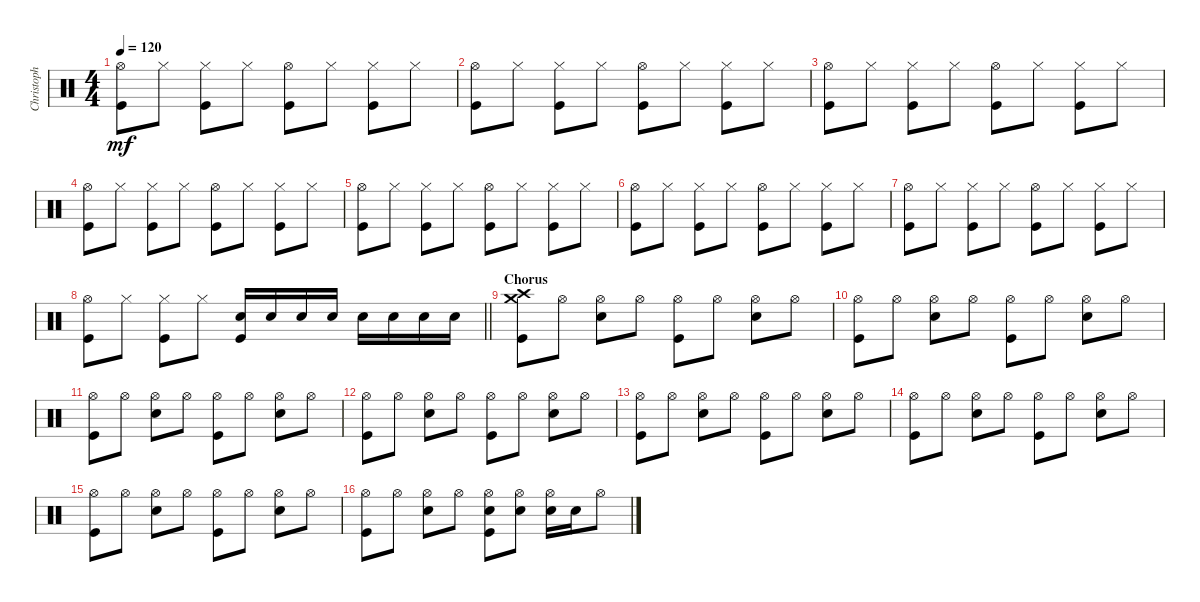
\track ("Christoph Schneider" "Christoph ") {instrument percussion}
\staff {score}
\articulation defaults
\ts (4 4)
\tempo 120
\clef neutral
\ks c
("Kick (hit)" "Hi-Hat (open)").8{dy mf} "Hi-Hat (closed)".8 ("Hi-Hat (closed)" "Kick (hit)").8 "Hi-Hat (closed)".8 ("Hi-Hat (open)" "Kick (hit)").8 "Hi-Hat (closed)".8 ("Hi-Hat (closed)" "Kick (hit)").8 "Hi-Hat (closed)".8 |
("Kick (hit)" "Hi-Hat (open)").8 "Hi-Hat (closed)".8 ("Hi-Hat (closed)" "Kick (hit)").8 "Hi-Hat (closed)".8 ("Hi-Hat (open)" "Kick (hit)").8 "Hi-Hat (closed)".8 ("Hi-Hat (closed)" "Kick (hit)").8 "Hi-Hat (closed)".8 |
("Kick (hit)" "Hi-Hat (open)").8 "Hi-Hat (closed)".8 ("Hi-Hat (closed)" "Kick (hit)").8 "Hi-Hat (closed)".8 ("Hi-Hat (open)" "Kick (hit)").8 "Hi-Hat (closed)".8 ("Hi-Hat (closed)" "Kick (hit)").8 "Hi-Hat (closed)".8 |
("Kick (hit)" "Hi-Hat (open)").8 "Hi-Hat (closed)".8 ("Hi-Hat (closed)" "Kick (hit)").8 "Hi-Hat (closed)".8 ("Hi-Hat (open)" "Kick (hit)").8 "Hi-Hat (closed)".8 ("Hi-Hat (closed)" "Kick (hit)").8 "Hi-Hat (closed)".8 |
("Kick (hit)" "Hi-Hat (open)").8 "Hi-Hat (closed)".8 ("Hi-Hat (closed)" "Kick (hit)").8 "Hi-Hat (closed)".8 ("Hi-Hat (open)" "Kick (hit)").8 "Hi-Hat (closed)".8 ("Hi-Hat (closed)" "Kick (hit)").8 "Hi-Hat (closed)".8 |
("Kick (hit)" "Hi-Hat (open)").8 "Hi-Hat (closed)".8 ("Hi-Hat (closed)" "Kick (hit)").8 "Hi-Hat (closed)".8 ("Hi-Hat (open)" "Kick (hit)").8 "Hi-Hat (closed)".8 ("Hi-Hat (closed)" "Kick (hit)").8 "Hi-Hat (closed)".8 |
("Kick (hit)" "Hi-Hat (open)").8 "Hi-Hat (closed)".8 ("Hi-Hat (closed)" "Kick (hit)").8 "Hi-Hat (closed)".8 ("Hi-Hat (open)" "Kick (hit)").8 "Hi-Hat (closed)".8 ("Hi-Hat (closed)" "Kick (hit)").8 "Hi-Hat (closed)".8 |
\barLineRight lightlight
("Kick (hit)" "Hi-Hat (open)").8 "Hi-Hat (closed)".8 ("Hi-Hat (closed)" "Kick (hit)").8 "Hi-Hat (closed)".8 ("Snare (hit) 2" "Kick (hit)").16 "Snare (hit) 2".16 "Snare (hit) 2".16 "Snare (hit) 2".16 "Snare (hit) 2".16 "Snare (hit) 2".16 "Snare (hit) 2".16 "Snare (hit) 2".16 |
\section ("" "Chorus ")
("Kick (hit)" "Crash high (hit)" "Crash medium (hit)").8 "Hi-Hat (open)".8 ("Snare (hit) 2" "Hi-Hat (open)").8 "Hi-Hat (open)".8 ("Hi-Hat (open)" "Kick (hit)").8 "Hi-Hat (open)".8 ("Hi-Hat (open)" "Snare (hit) 2").8 "Hi-Hat (open)".8 |
("Kick (hit)" "Hi-Hat (open)").8 "Hi-Hat (open)".8 ("Snare (hit) 2" "Hi-Hat (open)").8 "Hi-Hat (open)".8 ("Hi-Hat (open)" "Kick (hit)").8 "Hi-Hat (open)".8 ("Hi-Hat (open)" "Snare (hit) 2").8 "Hi-Hat (open)".8 |
("Kick (hit)" "Hi-Hat (open)").8 "Hi-Hat (open)".8 ("Snare (hit) 2" "Hi-Hat (open)").8 "Hi-Hat (open)".8 ("Hi-Hat (open)" "Kick (hit)").8 "Hi-Hat (open)".8 ("Hi-Hat (open)" "Snare (hit) 2").8 "Hi-Hat (open)".8 |
("Kick (hit)" "Hi-Hat (open)").8 "Hi-Hat (open)".8 ("Snare (hit) 2" "Hi-Hat (open)").8 "Hi-Hat (open)".8 ("Hi-Hat (open)" "Kick (hit)").8 "Hi-Hat (open)".8 ("Hi-Hat (open)" "Snare (hit) 2").8 "Hi-Hat (open)".8 |
("Kick (hit)" "Hi-Hat (open)").8 "Hi-Hat (open)".8 ("Snare (hit) 2" "Hi-Hat (open)").8 "Hi-Hat (open)".8 ("Hi-Hat (open)" "Kick (hit)").8 "Hi-Hat (open)".8 ("Hi-Hat (open)" "Snare (hit) 2").8 "Hi-Hat (open)".8 |
("Kick (hit)" "Hi-Hat (open)").8 "Hi-Hat (open)".8 ("Snare (hit) 2" "Hi-Hat (open)").8 "Hi-Hat (open)".8 ("Hi-Hat (open)" "Kick (hit)").8 "Hi-Hat (open)".8 ("Hi-Hat (open)" "Snare (hit) 2").8 "Hi-Hat (open)".8 |
("Kick (hit)" "Hi-Hat (open)").8 "Hi-Hat (open)".8 ("Snare (hit) 2" "Hi-Hat (open)").8 "Hi-Hat (open)".8 ("Hi-Hat (open)" "Kick (hit)").8 "Hi-Hat (open)".8 ("Hi-Hat (open)" "Snare (hit) 2").8 "Hi-Hat (open)".8 |
("Kick (hit)" "Hi-Hat (open)").8 "Hi-Hat (open)".8 ("Snare (hit) 2" "Hi-Hat (open)").8 "Hi-Hat (open)".8 ("Hi-Hat (open)" "Kick (hit)" "Snare (hit) 2").8 ("Hi-Hat (open)" "Snare (hit) 2").8 ("Hi-Hat (open)" "Snare (hit) 2").16 "Snare (hit) 2".16 "Hi-Hat (open)".8
